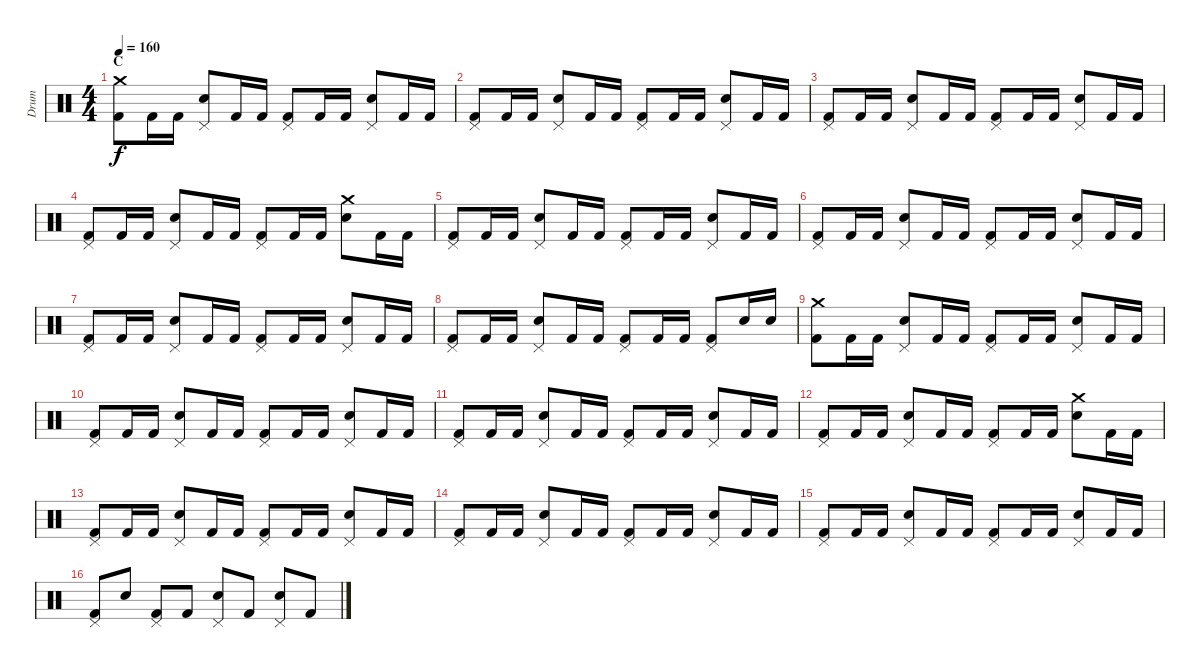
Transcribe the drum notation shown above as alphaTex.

\track ("Drum" "Drum") {instrument percussion}
\staff {score}
\articulation defaults
\ts (4 4)
\section ("" "C")
\tempo 160
\clef neutral
\ks c
("Crash medium (hit)" "Kick (hit) 2").8{dy f} "Kick (hit) 2".16 "Kick (hit) 2".16 ("Pedal Hi-Hat (hit)" "Snare (hit) 2").8 "Kick (hit) 2".16 "Kick (hit) 2".16 ("Pedal Hi-Hat (hit)" "Kick (hit) 2").8 "Kick (hit) 2".16 "Kick (hit) 2".16 ("Pedal Hi-Hat (hit)" "Snare (hit) 2").8 "Kick (hit) 2".16 "Kick (hit) 2".16 |
("Pedal Hi-Hat (hit)" "Kick (hit) 2").8 "Kick (hit) 2".16 "Kick (hit) 2".16 ("Pedal Hi-Hat (hit)" "Snare (hit) 2").8 "Kick (hit) 2".16 "Kick (hit) 2".16 ("Pedal Hi-Hat (hit)" "Kick (hit) 2").8 "Kick (hit) 2".16 "Kick (hit) 2".16 ("Pedal Hi-Hat (hit)" "Snare (hit) 2").8 "Kick (hit) 2".16 "Kick (hit) 2".16 |
("Pedal Hi-Hat (hit)" "Kick (hit) 2").8 "Kick (hit) 2".16 "Kick (hit) 2".16 ("Pedal Hi-Hat (hit)" "Snare (hit) 2").8 "Kick (hit) 2".16 "Kick (hit) 2".16 ("Pedal Hi-Hat (hit)" "Kick (hit) 2").8 "Kick (hit) 2".16 "Kick (hit) 2".16 ("Pedal Hi-Hat (hit)" "Snare (hit) 2").8 "Kick (hit) 2".16 "Kick (hit) 2".16 |
("Pedal Hi-Hat (hit)" "Kick (hit) 2").8 "Kick (hit) 2".16 "Kick (hit) 2".16 ("Pedal Hi-Hat (hit)" "Snare (hit) 2").8 "Kick (hit) 2".16 "Kick (hit) 2".16 ("Pedal Hi-Hat (hit)" "Kick (hit) 2").8 "Kick (hit) 2".16 "Kick (hit) 2".16 ("Crash medium (hit)" "Snare (hit) 2").8 "Kick (hit) 2".16 "Kick (hit) 2".16 |
("Pedal Hi-Hat (hit)" "Kick (hit) 2").8 "Kick (hit) 2".16 "Kick (hit) 2".16 ("Pedal Hi-Hat (hit)" "Snare (hit) 2").8 "Kick (hit) 2".16 "Kick (hit) 2".16 ("Pedal Hi-Hat (hit)" "Kick (hit) 2").8 "Kick (hit) 2".16 "Kick (hit) 2".16 ("Pedal Hi-Hat (hit)" "Snare (hit) 2").8 "Kick (hit) 2".16 "Kick (hit) 2".16 |
("Pedal Hi-Hat (hit)" "Kick (hit) 2").8 "Kick (hit) 2".16 "Kick (hit) 2".16 ("Pedal Hi-Hat (hit)" "Snare (hit) 2").8 "Kick (hit) 2".16 "Kick (hit) 2".16 ("Pedal Hi-Hat (hit)" "Kick (hit) 2").8 "Kick (hit) 2".16 "Kick (hit) 2".16 ("Pedal Hi-Hat (hit)" "Snare (hit) 2").8 "Kick (hit) 2".16 "Kick (hit) 2".16 |
("Pedal Hi-Hat (hit)" "Kick (hit) 2").8 "Kick (hit) 2".16 "Kick (hit) 2".16 ("Pedal Hi-Hat (hit)" "Snare (hit) 2").8 "Kick (hit) 2".16 "Kick (hit) 2".16 ("Pedal Hi-Hat (hit)" "Kick (hit) 2").8 "Kick (hit) 2".16 "Kick (hit) 2".16 ("Pedal Hi-Hat (hit)" "Snare (hit) 2").8 "Kick (hit) 2".16 "Kick (hit) 2".16 |
("Pedal Hi-Hat (hit)" "Kick (hit) 2").8 "Kick (hit) 2".16 "Kick (hit) 2".16 ("Pedal Hi-Hat (hit)" "Snare (hit) 2").8 "Kick (hit) 2".16 "Kick (hit) 2".16 ("Pedal Hi-Hat (hit)" "Kick (hit) 2").8 "Kick (hit) 2".16 "Kick (hit) 2".16 ("Pedal Hi-Hat (hit)" "Kick (hit) 2").8 "Snare (hit) 2".16 "Snare (hit) 2".16 |
("Crash medium (hit)" "Kick (hit) 2").8 "Kick (hit) 2".16 "Kick (hit) 2".16 ("Pedal Hi-Hat (hit)" "Snare (hit) 2").8 "Kick (hit) 2".16 "Kick (hit) 2".16 ("Pedal Hi-Hat (hit)" "Kick (hit) 2").8 "Kick (hit) 2".16 "Kick (hit) 2".16 ("Pedal Hi-Hat (hit)" "Snare (hit) 2").8 "Kick (hit) 2".16 "Kick (hit) 2".16 |
("Pedal Hi-Hat (hit)" "Kick (hit) 2").8 "Kick (hit) 2".16 "Kick (hit) 2".16 ("Pedal Hi-Hat (hit)" "Snare (hit) 2").8 "Kick (hit) 2".16 "Kick (hit) 2".16 ("Pedal Hi-Hat (hit)" "Kick (hit) 2").8 "Kick (hit) 2".16 "Kick (hit) 2".16 ("Pedal Hi-Hat (hit)" "Snare (hit) 2").8 "Kick (hit) 2".16 "Kick (hit) 2".16 |
("Pedal Hi-Hat (hit)" "Kick (hit) 2").8 "Kick (hit) 2".16 "Kick (hit) 2".16 ("Pedal Hi-Hat (hit)" "Snare (hit) 2").8 "Kick (hit) 2".16 "Kick (hit) 2".16 ("Pedal Hi-Hat (hit)" "Kick (hit) 2").8 "Kick (hit) 2".16 "Kick (hit) 2".16 ("Pedal Hi-Hat (hit)" "Snare (hit) 2").8 "Kick (hit) 2".16 "Kick (hit) 2".16 |
("Pedal Hi-Hat (hit)" "Kick (hit) 2").8 "Kick (hit) 2".16 "Kick (hit) 2".16 ("Pedal Hi-Hat (hit)" "Snare (hit) 2").8 "Kick (hit) 2".16 "Kick (hit) 2".16 ("Pedal Hi-Hat (hit)" "Kick (hit) 2").8 "Kick (hit) 2".16 "Kick (hit) 2".16 ("Crash medium (hit)" "Snare (hit) 2").8 "Kick (hit) 2".16 "Kick (hit) 2".16 |
("Pedal Hi-Hat (hit)" "Kick (hit) 2").8 "Kick (hit) 2".16 "Kick (hit) 2".16 ("Pedal Hi-Hat (hit)" "Snare (hit) 2").8 "Kick (hit) 2".16 "Kick (hit) 2".16 ("Pedal Hi-Hat (hit)" "Kick (hit) 2").8 "Kick (hit) 2".16 "Kick (hit) 2".16 ("Pedal Hi-Hat (hit)" "Snare (hit) 2").8 "Kick (hit) 2".16 "Kick (hit) 2".16 |
("Pedal Hi-Hat (hit)" "Kick (hit) 2").8 "Kick (hit) 2".16 "Kick (hit) 2".16 ("Pedal Hi-Hat (hit)" "Snare (hit) 2").8 "Kick (hit) 2".16 "Kick (hit) 2".16 ("Pedal Hi-Hat (hit)" "Kick (hit) 2").8 "Kick (hit) 2".16 "Kick (hit) 2".16 ("Pedal Hi-Hat (hit)" "Snare (hit) 2").8 "Kick (hit) 2".16 "Kick (hit) 2".16 |
("Pedal Hi-Hat (hit)" "Kick (hit) 2").8 "Kick (hit) 2".16 "Kick (hit) 2".16 ("Pedal Hi-Hat (hit)" "Snare (hit) 2").8 "Kick (hit) 2".16 "Kick (hit) 2".16 ("Pedal Hi-Hat (hit)" "Kick (hit) 2").8 "Kick (hit) 2".16 "Kick (hit) 2".16 ("Pedal Hi-Hat (hit)" "Snare (hit) 2").8 "Kick (hit) 2".16 "Kick (hit) 2".16 |
("Pedal Hi-Hat (hit)" "Kick (hit) 2").8 "Snare (hit) 2".8 ("Pedal Hi-Hat (hit)" "Kick (hit) 2").8 "Kick (hit) 2".8 ("Pedal Hi-Hat (hit)" "Snare (hit) 2").8 "Kick (hit) 2".8 ("Pedal Hi-Hat (hit)" "Snare (hit) 2").8 "Kick (hit) 2".8
